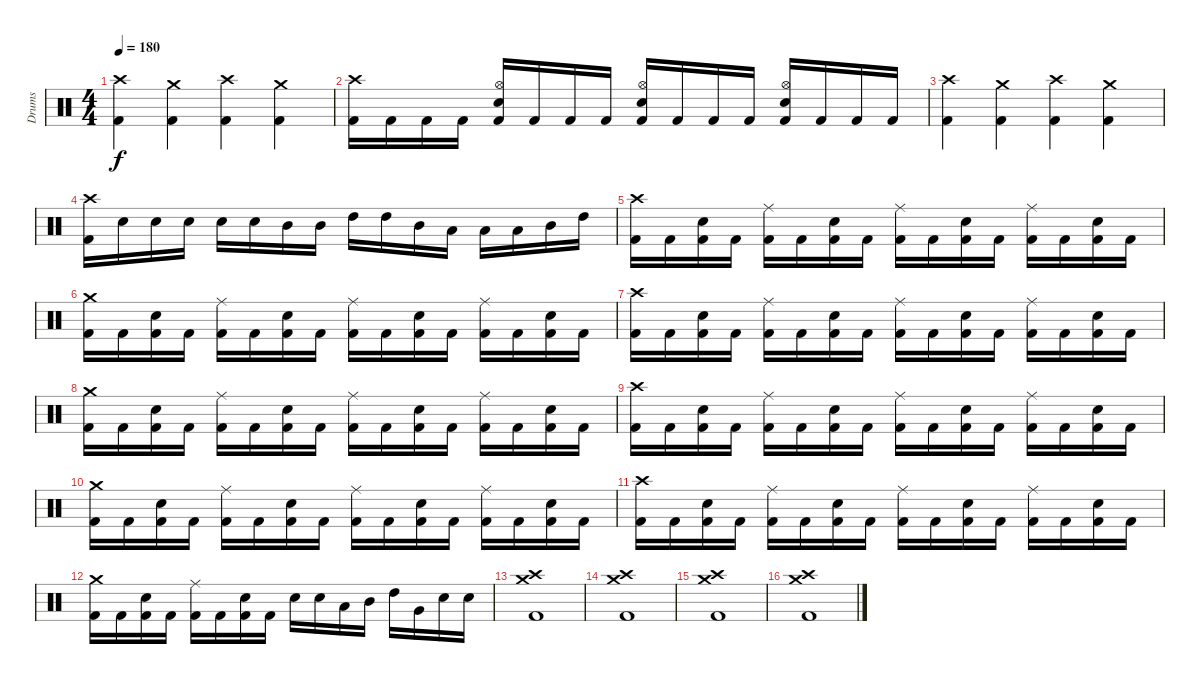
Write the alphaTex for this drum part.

\track ("Drums" "Drums") {instrument percussion}
\staff {score}
\articulation defaults
\ts (4 4)
\tempo 180
\clef neutral
\ks c
("Crash high (hit)" "Kick (hit) 2").4{dy f} ("Crash medium (hit)" "Kick (hit) 2").4 ("Crash high (hit)" "Kick (hit) 2").4 ("Crash medium (hit)" "Kick (hit) 2").4 |
("Crash high (hit)" "Kick (hit) 2").16 "Kick (hit) 2".16 "Kick (hit) 2".16 "Kick (hit) 2".16 ("Hi-Hat (open)" "Electric Snare (hit)" "Kick (hit) 2").16 "Kick (hit) 2".16 "Kick (hit) 2".16 "Kick (hit) 2".16 ("Hi-Hat (open)" "Electric Snare (hit)" "Kick (hit) 2").16 "Kick (hit) 2".16 "Kick (hit) 2".16 "Kick (hit) 2".16 ("Hi-Hat (open)" "Electric Snare (hit)" "Kick (hit) 2").16 "Kick (hit) 2".16 "Kick (hit) 2".16 "Kick (hit) 2".16 |
("Crash high (hit)" "Kick (hit) 2").4 ("Crash medium (hit)" "Kick (hit) 2").4 ("Crash high (hit)" "Kick (hit) 2").4 ("Crash medium (hit)" "Kick (hit) 2").4 |
("Crash high (hit)" "Kick (hit) 2").16 "Electric Snare (hit)".16 "Electric Snare (hit)".16 "Electric Snare (hit)".16 "Electric Snare (hit)".16 "Electric Snare (hit)".16 "Mid Tom (hit)".16 "Mid Tom (hit)".16 "High Tom (hit)".16 "High Tom (hit)".16 "Mid Tom (hit)".16 "Low Tom (hit)".16 "Low Tom (hit)".16 "Low Tom (hit)".16 "Mid Tom (hit)".16 "High Tom (hit)".16 |
("Crash high (hit)" "Kick (hit) 2").16 "Kick (hit) 2".16 ("Electric Snare (hit)" "Kick (hit) 2").16 "Kick (hit) 2".16 ("Ride (middle)" "Kick (hit) 2").16 "Kick (hit) 2".16 ("Electric Snare (hit)" "Kick (hit) 2").16 "Kick (hit) 2".16 ("Ride (middle)" "Kick (hit) 2").16 "Kick (hit) 2".16 ("Electric Snare (hit)" "Kick (hit) 2").16 "Kick (hit) 2".16 ("Ride (middle)" "Kick (hit) 2").16 "Kick (hit) 2".16 ("Electric Snare (hit)" "Kick (hit) 2").16 "Kick (hit) 2".16 |
("Crash medium (hit)" "Kick (hit) 2").16 "Kick (hit) 2".16 ("Electric Snare (hit)" "Kick (hit) 2").16 "Kick (hit) 2".16 ("Ride (middle)" "Kick (hit) 2").16 "Kick (hit) 2".16 ("Electric Snare (hit)" "Kick (hit) 2").16 "Kick (hit) 2".16 ("Ride (middle)" "Kick (hit) 2").16 "Kick (hit) 2".16 ("Electric Snare (hit)" "Kick (hit) 2").16 "Kick (hit) 2".16 ("Ride (middle)" "Kick (hit) 2").16 "Kick (hit) 2".16 ("Electric Snare (hit)" "Kick (hit) 2").16 "Kick (hit) 2".16 |
("Crash high (hit)" "Kick (hit) 2").16 "Kick (hit) 2".16 ("Electric Snare (hit)" "Kick (hit) 2").16 "Kick (hit) 2".16 ("Ride (middle)" "Kick (hit) 2").16 "Kick (hit) 2".16 ("Electric Snare (hit)" "Kick (hit) 2").16 "Kick (hit) 2".16 ("Ride (middle)" "Kick (hit) 2").16 "Kick (hit) 2".16 ("Electric Snare (hit)" "Kick (hit) 2").16 "Kick (hit) 2".16 ("Ride (middle)" "Kick (hit) 2").16 "Kick (hit) 2".16 ("Electric Snare (hit)" "Kick (hit) 2").16 "Kick (hit) 2".16 |
("Crash medium (hit)" "Kick (hit) 2").16 "Kick (hit) 2".16 ("Electric Snare (hit)" "Kick (hit) 2").16 "Kick (hit) 2".16 ("Ride (middle)" "Kick (hit) 2").16 "Kick (hit) 2".16 ("Electric Snare (hit)" "Kick (hit) 2").16 "Kick (hit) 2".16 ("Ride (middle)" "Kick (hit) 2").16 "Kick (hit) 2".16 ("Electric Snare (hit)" "Kick (hit) 2").16 "Kick (hit) 2".16 ("Ride (middle)" "Kick (hit) 2").16 "Kick (hit) 2".16 ("Electric Snare (hit)" "Kick (hit) 2").16 "Kick (hit) 2".16 |
("Crash high (hit)" "Kick (hit) 2").16 "Kick (hit) 2".16 ("Electric Snare (hit)" "Kick (hit) 2").16 "Kick (hit) 2".16 ("Ride (middle)" "Kick (hit) 2").16 "Kick (hit) 2".16 ("Electric Snare (hit)" "Kick (hit) 2").16 "Kick (hit) 2".16 ("Ride (middle)" "Kick (hit) 2").16 "Kick (hit) 2".16 ("Electric Snare (hit)" "Kick (hit) 2").16 "Kick (hit) 2".16 ("Ride (middle)" "Kick (hit) 2").16 "Kick (hit) 2".16 ("Electric Snare (hit)" "Kick (hit) 2").16 "Kick (hit) 2".16 |
("Crash medium (hit)" "Kick (hit) 2").16 "Kick (hit) 2".16 ("Electric Snare (hit)" "Kick (hit) 2").16 "Kick (hit) 2".16 ("Ride (middle)" "Kick (hit) 2").16 "Kick (hit) 2".16 ("Electric Snare (hit)" "Kick (hit) 2").16 "Kick (hit) 2".16 ("Ride (middle)" "Kick (hit) 2").16 "Kick (hit) 2".16 ("Electric Snare (hit)" "Kick (hit) 2").16 "Kick (hit) 2".16 ("Ride (middle)" "Kick (hit) 2").16 "Kick (hit) 2".16 ("Electric Snare (hit)" "Kick (hit) 2").16 "Kick (hit) 2".16 |
("Crash high (hit)" "Kick (hit) 2").16 "Kick (hit) 2".16 ("Electric Snare (hit)" "Kick (hit) 2").16 "Kick (hit) 2".16 ("Ride (middle)" "Kick (hit) 2").16 "Kick (hit) 2".16 ("Electric Snare (hit)" "Kick (hit) 2").16 "Kick (hit) 2".16 ("Ride (middle)" "Kick (hit) 2").16 "Kick (hit) 2".16 ("Electric Snare (hit)" "Kick (hit) 2").16 "Kick (hit) 2".16 ("Ride (middle)" "Kick (hit) 2").16 "Kick (hit) 2".16 ("Electric Snare (hit)" "Kick (hit) 2").16 "Kick (hit) 2".16 |
("Crash medium (hit)" "Kick (hit) 2").16 "Kick (hit) 2".16 ("Electric Snare (hit)" "Kick (hit) 2").16 "Kick (hit) 2".16 ("Ride (middle)" "Kick (hit) 2").16 "Kick (hit) 2".16 ("Electric Snare (hit)" "Kick (hit) 2").16 "Kick (hit) 2".16 "Electric Snare (hit)".16 "Electric Snare (hit)".16 "Low Tom (hit)".16 "Mid Tom (hit)".16 "High Tom (hit)".16 "Very Low Tom (hit)".16 "Electric Snare (hit)".16 "Electric Snare (hit)".16 |
("Crash medium (hit)" "Crash high (hit)" "Kick (hit) 2").1 |
("Crash medium (hit)" "Crash high (hit)" "Kick (hit) 2").1 |
("Crash medium (hit)" "Crash high (hit)" "Kick (hit) 2").1 |
("Crash medium (hit)" "Crash high (hit)" "Kick (hit) 2").1
